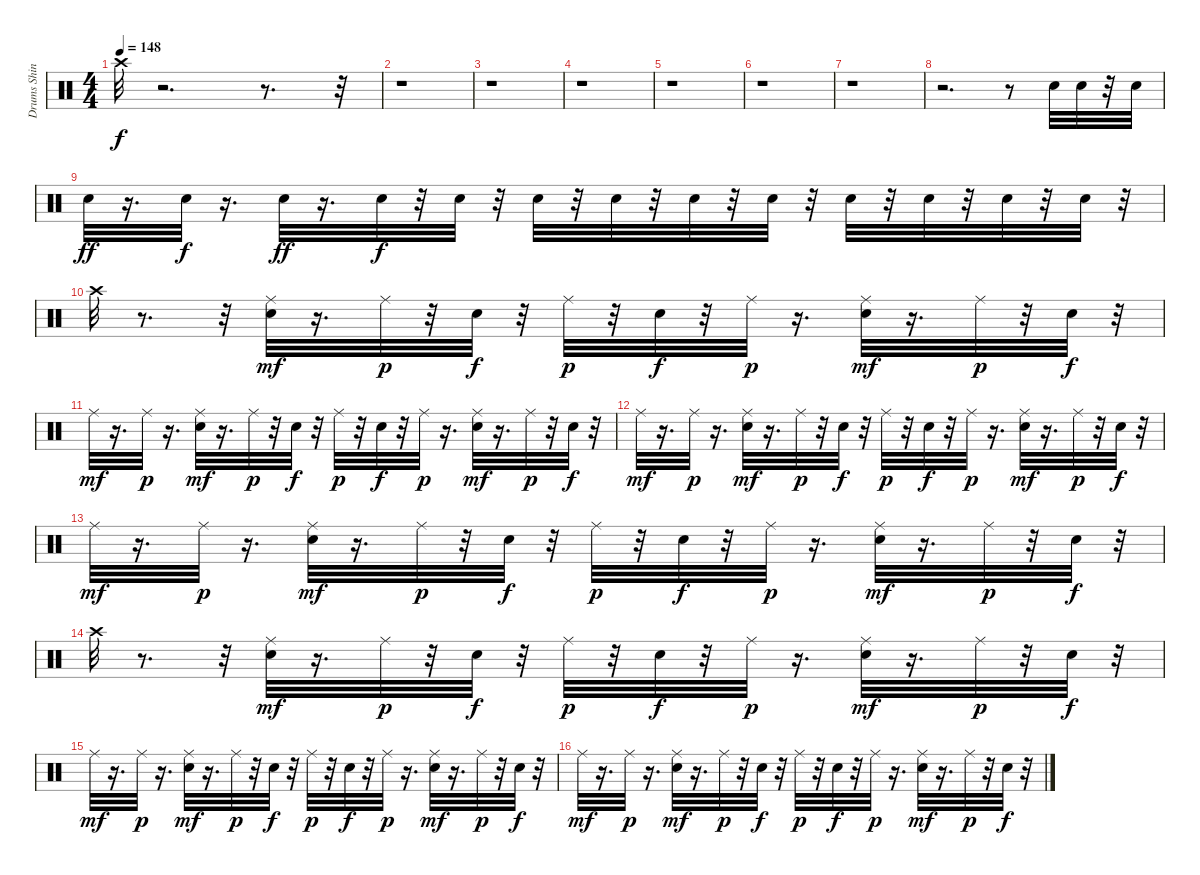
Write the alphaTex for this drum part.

\track ("Drums Shinya         " "Drums Shin") {instrument percussion}
\staff {score}
\articulation defaults
\ts (4 4)
\tempo 148
\clef neutral
\ks c "Crash high (hit)".32{dy f}
r.2{d} r.8{d} r.32 |
r.1 |
r.1 |
r.1 |
r.1 |
r.1 |
r.1 |
r.2{d} r.8 "Electric Snare (hit)".32 "Electric Snare (hit)".32 r.32 "Electric Snare (hit)".32 |
"Electric Snare (hit)".32{dy ff} r.16{d} "Electric Snare (hit)".32{dy f} r.16{d} "Electric Snare (hit)".32{dy ff} r.16{d} "Electric Snare (hit)".32{dy f} r.32 "Electric Snare (hit)".32 r.32 "Electric Snare (hit)".32 r.32 "Electric Snare (hit)".32 r.32 "Electric Snare (hit)".32 r.32 "Electric Snare (hit)".32 r.32 "Electric Snare (hit)".32 r.32 "Electric Snare (hit)".32 r.32 "Electric Snare (hit)".32 r.32 "Electric Snare (hit)".32 r.32 |
"Crash high (hit)".32 r.8{d} r.32 ("Electric Snare (hit)" "Ride (middle)").32{dy mf} r.16{d} "Ride (middle)".32{dy p} r.32 "Electric Snare (hit)".32{dy f} r.32 "Ride (middle)".32{dy p} r.32 "Electric Snare (hit)".32{dy f} r.32 "Ride (middle)".32{dy p} r.16{d} ("Electric Snare (hit)" "Ride (middle)").32{dy mf} r.16{d} "Ride (middle)".32{dy p} r.32 "Electric Snare (hit)".32{dy f} r.32 |
"Ride (middle)".32{dy mf} r.16{d} "Ride (middle)".32{dy p} r.16{d} ("Electric Snare (hit)" "Ride (middle)").32{dy mf} r.16{d} "Ride (middle)".32{dy p} r.32 "Electric Snare (hit)".32{dy f} r.32 "Ride (middle)".32{dy p} r.32 "Electric Snare (hit)".32{dy f} r.32 "Ride (middle)".32{dy p} r.16{d} ("Electric Snare (hit)" "Ride (middle)").32{dy mf} r.16{d} "Ride (middle)".32{dy p} r.32 "Electric Snare (hit)".32{dy f} r.32 |
"Ride (middle)".32{dy mf} r.16{d} "Ride (middle)".32{dy p} r.16{d} ("Electric Snare (hit)" "Ride (middle)").32{dy mf} r.16{d} "Ride (middle)".32{dy p} r.32 "Electric Snare (hit)".32{dy f} r.32 "Ride (middle)".32{dy p} r.32 "Electric Snare (hit)".32{dy f} r.32 "Ride (middle)".32{dy p} r.16{d} ("Electric Snare (hit)" "Ride (middle)").32{dy mf} r.16{d} "Ride (middle)".32{dy p} r.32 "Electric Snare (hit)".32{dy f} r.32 |
"Ride (middle)".32{dy mf} r.16{d} "Ride (middle)".32{dy p} r.16{d} ("Electric Snare (hit)" "Ride (middle)").32{dy mf} r.16{d} "Ride (middle)".32{dy p} r.32 "Electric Snare (hit)".32{dy f} r.32 "Ride (middle)".32{dy p} r.32 "Electric Snare (hit)".32{dy f} r.32 "Ride (middle)".32{dy p} r.16{d} ("Electric Snare (hit)" "Ride (middle)").32{dy mf} r.16{d} "Ride (middle)".32{dy p} r.32 "Electric Snare (hit)".32{dy f} r.32 |
"Crash high (hit)".32 r.8{d} r.32 ("Electric Snare (hit)" "Ride (middle)").32{dy mf} r.16{d} "Ride (middle)".32{dy p} r.32 "Electric Snare (hit)".32{dy f} r.32 "Ride (middle)".32{dy p} r.32 "Electric Snare (hit)".32{dy f} r.32 "Ride (middle)".32{dy p} r.16{d} ("Electric Snare (hit)" "Ride (middle)").32{dy mf} r.16{d} "Ride (middle)".32{dy p} r.32 "Electric Snare (hit)".32{dy f} r.32 |
"Ride (middle)".32{dy mf} r.16{d} "Ride (middle)".32{dy p} r.16{d} ("Electric Snare (hit)" "Ride (middle)").32{dy mf} r.16{d} "Ride (middle)".32{dy p} r.32 "Electric Snare (hit)".32{dy f} r.32 "Ride (middle)".32{dy p} r.32 "Electric Snare (hit)".32{dy f} r.32 "Ride (middle)".32{dy p} r.16{d} ("Electric Snare (hit)" "Ride (middle)").32{dy mf} r.16{d} "Ride (middle)".32{dy p} r.32 "Electric Snare (hit)".32{dy f} r.32 |
"Ride (middle)".32{dy mf} r.16{d} "Ride (middle)".32{dy p} r.16{d} ("Electric Snare (hit)" "Ride (middle)").32{dy mf} r.16{d} "Ride (middle)".32{dy p} r.32 "Electric Snare (hit)".32{dy f} r.32 "Ride (middle)".32{dy p} r.32 "Electric Snare (hit)".32{dy f} r.32 "Ride (middle)".32{dy p} r.16{d} ("Electric Snare (hit)" "Ride (middle)").32{dy mf} r.16{d} "Ride (middle)".32{dy p} r.32 "Electric Snare (hit)".32{dy f} r.32
